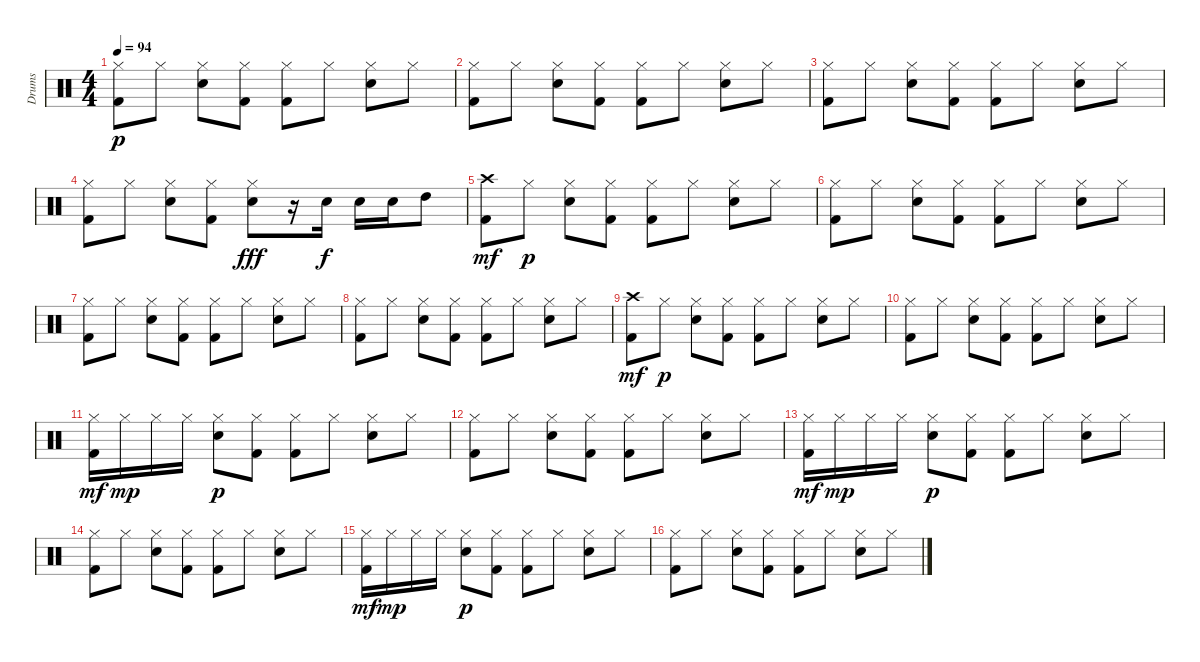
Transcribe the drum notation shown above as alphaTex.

\track ("Drums" "Drums") {instrument percussion}
\staff {score}
\articulation defaults
\ts (4 4)
\tempo 94
\clef neutral
\ks c
("Hi-Hat (closed)" "Kick (hit) 2").8{dy p} "Hi-Hat (closed)".8 ("Hi-Hat (closed)" "Snare (hit) 2").8 ("Hi-Hat (closed)" "Kick (hit) 2").8 ("Hi-Hat (closed)" "Kick (hit) 2").8 "Hi-Hat (closed)".8 ("Hi-Hat (closed)" "Snare (hit) 2").8 "Hi-Hat (closed)".8 |
("Hi-Hat (closed)" "Kick (hit) 2").8 "Hi-Hat (closed)".8 ("Hi-Hat (closed)" "Snare (hit) 2").8 ("Hi-Hat (closed)" "Kick (hit) 2").8 ("Hi-Hat (closed)" "Kick (hit) 2").8 "Hi-Hat (closed)".8 ("Hi-Hat (closed)" "Snare (hit) 2").8 "Hi-Hat (closed)".8 |
("Hi-Hat (closed)" "Kick (hit) 2").8 "Hi-Hat (closed)".8 ("Hi-Hat (closed)" "Snare (hit) 2").8 ("Hi-Hat (closed)" "Kick (hit) 2").8 ("Hi-Hat (closed)" "Kick (hit) 2").8 "Hi-Hat (closed)".8 ("Hi-Hat (closed)" "Snare (hit) 2").8 "Hi-Hat (closed)".8 |
("Hi-Hat (closed)" "Kick (hit) 2").8 "Hi-Hat (closed)".8 ("Hi-Hat (closed)" "Snare (hit) 2").8 ("Hi-Hat (closed)" "Kick (hit) 2").8 ("Hi-Hat (closed)" "Snare (hit) 2").8{dy fff} r.16 "Snare (hit) 2".16{dy f} "Snare (hit) 2".16 "Snare (hit) 2".16 "High Tom (hit)".8 |
("Crash high (hit)" "Kick (hit) 2").8{dy mf} "Hi-Hat (closed)".8{dy p} ("Hi-Hat (closed)" "Snare (hit) 2").8 ("Hi-Hat (closed)" "Kick (hit) 2").8 ("Hi-Hat (closed)" "Kick (hit) 2").8 "Hi-Hat (closed)".8 ("Hi-Hat (closed)" "Snare (hit) 2").8 "Hi-Hat (closed)".8 |
("Hi-Hat (closed)" "Kick (hit) 2").8 "Hi-Hat (closed)".8 ("Hi-Hat (closed)" "Snare (hit) 2").8 ("Hi-Hat (closed)" "Kick (hit) 2").8 ("Hi-Hat (closed)" "Kick (hit) 2").8 "Hi-Hat (closed)".8 ("Hi-Hat (closed)" "Snare (hit) 2").8 "Hi-Hat (closed)".8 |
("Hi-Hat (closed)" "Kick (hit) 2").8 "Hi-Hat (closed)".8 ("Hi-Hat (closed)" "Snare (hit) 2").8 ("Hi-Hat (closed)" "Kick (hit) 2").8 ("Hi-Hat (closed)" "Kick (hit) 2").8 "Hi-Hat (closed)".8 ("Hi-Hat (closed)" "Snare (hit) 2").8 "Hi-Hat (closed)".8 |
("Hi-Hat (closed)" "Kick (hit) 2").8 "Hi-Hat (closed)".8 ("Hi-Hat (closed)" "Snare (hit) 2").8 ("Hi-Hat (closed)" "Kick (hit) 2").8 ("Hi-Hat (closed)" "Kick (hit) 2").8 "Hi-Hat (closed)".8 ("Hi-Hat (closed)" "Snare (hit) 2").8 "Hi-Hat (closed)".8 |
("Crash high (hit)" "Kick (hit) 2").8{dy mf} "Hi-Hat (closed)".8{dy p} ("Hi-Hat (closed)" "Snare (hit) 2").8 ("Hi-Hat (closed)" "Kick (hit) 2").8 ("Hi-Hat (closed)" "Kick (hit) 2").8 "Hi-Hat (closed)".8 ("Hi-Hat (closed)" "Snare (hit) 2").8 "Hi-Hat (closed)".8 |
("Hi-Hat (closed)" "Kick (hit) 2").8 "Hi-Hat (closed)".8 ("Hi-Hat (closed)" "Snare (hit) 2").8 ("Hi-Hat (closed)" "Kick (hit) 2").8 ("Hi-Hat (closed)" "Kick (hit) 2").8 "Hi-Hat (closed)".8 ("Hi-Hat (closed)" "Snare (hit) 2").8 "Hi-Hat (closed)".8 |
("Hi-Hat (closed)" "Kick (hit) 2").16{dy mf} "Hi-Hat (closed)".16{dy mp} "Hi-Hat (closed)".16 "Hi-Hat (closed)".16 ("Hi-Hat (closed)" "Snare (hit) 2").8{dy p} ("Hi-Hat (closed)" "Kick (hit) 2").8 ("Hi-Hat (closed)" "Kick (hit) 2").8 "Hi-Hat (closed)".8 ("Hi-Hat (closed)" "Snare (hit) 2").8 "Hi-Hat (closed)".8 |
("Hi-Hat (closed)" "Kick (hit) 2").8 "Hi-Hat (closed)".8 ("Hi-Hat (closed)" "Snare (hit) 2").8 ("Hi-Hat (closed)" "Kick (hit) 2").8 ("Hi-Hat (closed)" "Kick (hit) 2").8 "Hi-Hat (closed)".8 ("Hi-Hat (closed)" "Snare (hit) 2").8 "Hi-Hat (closed)".8 |
("Hi-Hat (closed)" "Kick (hit) 2").16{dy mf} "Hi-Hat (closed)".16{dy mp} "Hi-Hat (closed)".16 "Hi-Hat (closed)".16 ("Hi-Hat (closed)" "Snare (hit) 2").8{dy p} ("Hi-Hat (closed)" "Kick (hit) 2").8 ("Hi-Hat (closed)" "Kick (hit) 2").8 "Hi-Hat (closed)".8 ("Hi-Hat (closed)" "Snare (hit) 2").8 "Hi-Hat (closed)".8 |
("Hi-Hat (closed)" "Kick (hit) 2").8 "Hi-Hat (closed)".8 ("Hi-Hat (closed)" "Snare (hit) 2").8 ("Hi-Hat (closed)" "Kick (hit) 2").8 ("Hi-Hat (closed)" "Kick (hit) 2").8 "Hi-Hat (closed)".8 ("Hi-Hat (closed)" "Snare (hit) 2").8 "Hi-Hat (closed)".8 |
("Hi-Hat (closed)" "Kick (hit) 2").16{dy mf} "Hi-Hat (closed)".16{dy mp} "Hi-Hat (closed)".16 "Hi-Hat (closed)".16 ("Hi-Hat (closed)" "Snare (hit) 2").8{dy p} ("Hi-Hat (closed)" "Kick (hit) 2").8 ("Hi-Hat (closed)" "Kick (hit) 2").8 "Hi-Hat (closed)".8 ("Hi-Hat (closed)" "Snare (hit) 2").8 "Hi-Hat (closed)".8 |
("Hi-Hat (closed)" "Kick (hit) 2").8 "Hi-Hat (closed)".8 ("Hi-Hat (closed)" "Snare (hit) 2").8 ("Hi-Hat (closed)" "Kick (hit) 2").8 ("Hi-Hat (closed)" "Kick (hit) 2").8 "Hi-Hat (closed)".8 ("Hi-Hat (closed)" "Snare (hit) 2").8 "Hi-Hat (closed)".8
